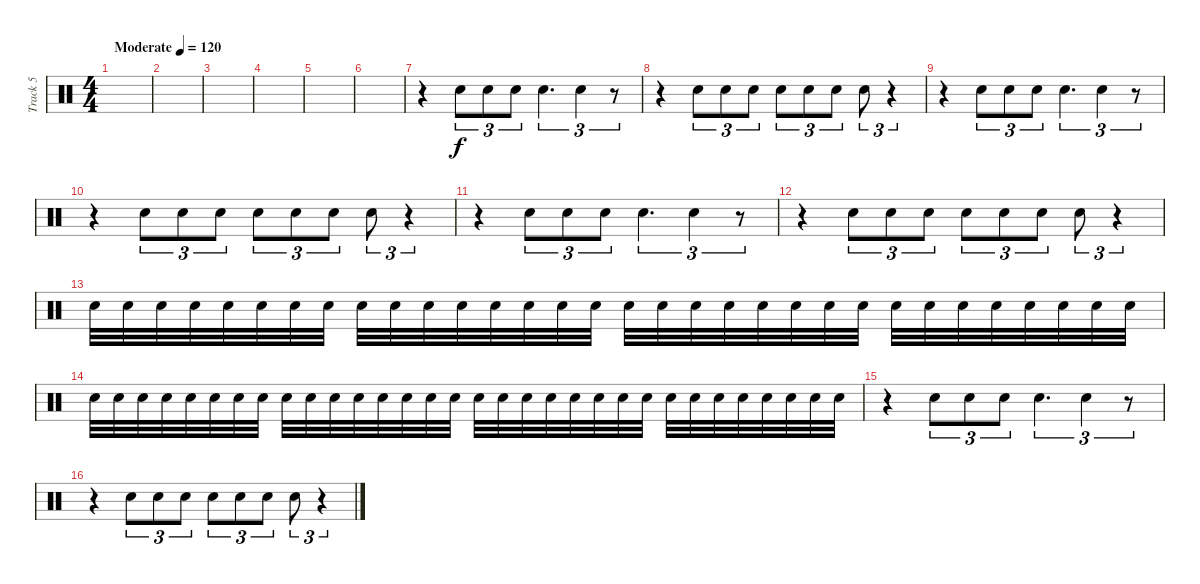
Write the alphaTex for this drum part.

\track ("Track 5" "Track 5") {instrument percussion}
\staff {score}
\articulation defaults
\ts (4 4)
\tempo (120 "Moderate")
\clef neutral
\ks c
|
|
|
|
|
|
r.4 "Electric Snare (hit)".8{tu (3 2)} "Electric Snare (hit)".8{tu (3 2)} "Electric Snare (hit)".8{tu (3 2)} "Electric Snare (hit)".4{d tu (3 2)} "Electric Snare (hit)".4{tu (3 2)} r.8{tu (3 2)} |
r.4 "Electric Snare (hit)".8{tu (3 2)} "Electric Snare (hit)".8{tu (3 2)} "Electric Snare (hit)".8{tu (3 2)} "Electric Snare (hit)".8{tu (3 2)} "Electric Snare (hit)".8{tu (3 2)} "Electric Snare (hit)".8{tu (3 2)} "Electric Snare (hit)".8{tu (3 2)} r.4{tu (3 2)} |
r.4 "Electric Snare (hit)".8{tu (3 2)} "Electric Snare (hit)".8{tu (3 2)} "Electric Snare (hit)".8{tu (3 2)} "Electric Snare (hit)".4{d tu (3 2)} "Electric Snare (hit)".4{tu (3 2)} r.8{tu (3 2)} |
r.4 "Electric Snare (hit)".8{tu (3 2)} "Electric Snare (hit)".8{tu (3 2)} "Electric Snare (hit)".8{tu (3 2)} "Electric Snare (hit)".8{tu (3 2)} "Electric Snare (hit)".8{tu (3 2)} "Electric Snare (hit)".8{tu (3 2)} "Electric Snare (hit)".8{tu (3 2)} r.4{tu (3 2)} |
r.4 "Electric Snare (hit)".8{tu (3 2)} "Electric Snare (hit)".8{tu (3 2)} "Electric Snare (hit)".8{tu (3 2)} "Electric Snare (hit)".4{d tu (3 2)} "Electric Snare (hit)".4{tu (3 2)} r.8{tu (3 2)} |
r.4 "Electric Snare (hit)".8{tu (3 2)} "Electric Snare (hit)".8{tu (3 2)} "Electric Snare (hit)".8{tu (3 2)} "Electric Snare (hit)".8{tu (3 2)} "Electric Snare (hit)".8{tu (3 2)} "Electric Snare (hit)".8{tu (3 2)} "Electric Snare (hit)".8{tu (3 2)} r.4{tu (3 2)} |
"Electric Snare (hit)".32 "Electric Snare (hit)".32 "Electric Snare (hit)".32 "Electric Snare (hit)".32 "Electric Snare (hit)".32 "Electric Snare (hit)".32 "Electric Snare (hit)".32 "Electric Snare (hit)".32 "Electric Snare (hit)".32 "Electric Snare (hit)".32 "Electric Snare (hit)".32 "Electric Snare (hit)".32 "Electric Snare (hit)".32 "Electric Snare (hit)".32 "Electric Snare (hit)".32 "Electric Snare (hit)".32 "Electric Snare (hit)".32 "Electric Snare (hit)".32 "Electric Snare (hit)".32 "Electric Snare (hit)".32 "Electric Snare (hit)".32 "Electric Snare (hit)".32 "Electric Snare (hit)".32 "Electric Snare (hit)".32 "Electric Snare (hit)".32 "Electric Snare (hit)".32 "Electric Snare (hit)".32 "Electric Snare (hit)".32 "Electric Snare (hit)".32 "Electric Snare (hit)".32 "Electric Snare (hit)".32 "Electric Snare (hit)".32 |
"Electric Snare (hit)".32 "Electric Snare (hit)".32 "Electric Snare (hit)".32 "Electric Snare (hit)".32 "Electric Snare (hit)".32 "Electric Snare (hit)".32 "Electric Snare (hit)".32 "Electric Snare (hit)".32 "Electric Snare (hit)".32 "Electric Snare (hit)".32 "Electric Snare (hit)".32 "Electric Snare (hit)".32 "Electric Snare (hit)".32 "Electric Snare (hit)".32 "Electric Snare (hit)".32 "Electric Snare (hit)".32 "Electric Snare (hit)".32 "Electric Snare (hit)".32 "Electric Snare (hit)".32 "Electric Snare (hit)".32 "Electric Snare (hit)".32 "Electric Snare (hit)".32 "Electric Snare (hit)".32 "Electric Snare (hit)".32 "Electric Snare (hit)".32 "Electric Snare (hit)".32 "Electric Snare (hit)".32 "Electric Snare (hit)".32 "Electric Snare (hit)".32 "Electric Snare (hit)".32 "Electric Snare (hit)".32 "Electric Snare (hit)".32 |
r.4 "Electric Snare (hit)".8{tu (3 2)} "Electric Snare (hit)".8{tu (3 2)} "Electric Snare (hit)".8{tu (3 2)} "Electric Snare (hit)".4{d tu (3 2)} "Electric Snare (hit)".4{tu (3 2)} r.8{tu (3 2)} |
r.4 "Electric Snare (hit)".8{tu (3 2)} "Electric Snare (hit)".8{tu (3 2)} "Electric Snare (hit)".8{tu (3 2)} "Electric Snare (hit)".8{tu (3 2)} "Electric Snare (hit)".8{tu (3 2)} "Electric Snare (hit)".8{tu (3 2)} "Electric Snare (hit)".8{tu (3 2)} r.4{tu (3 2)}
